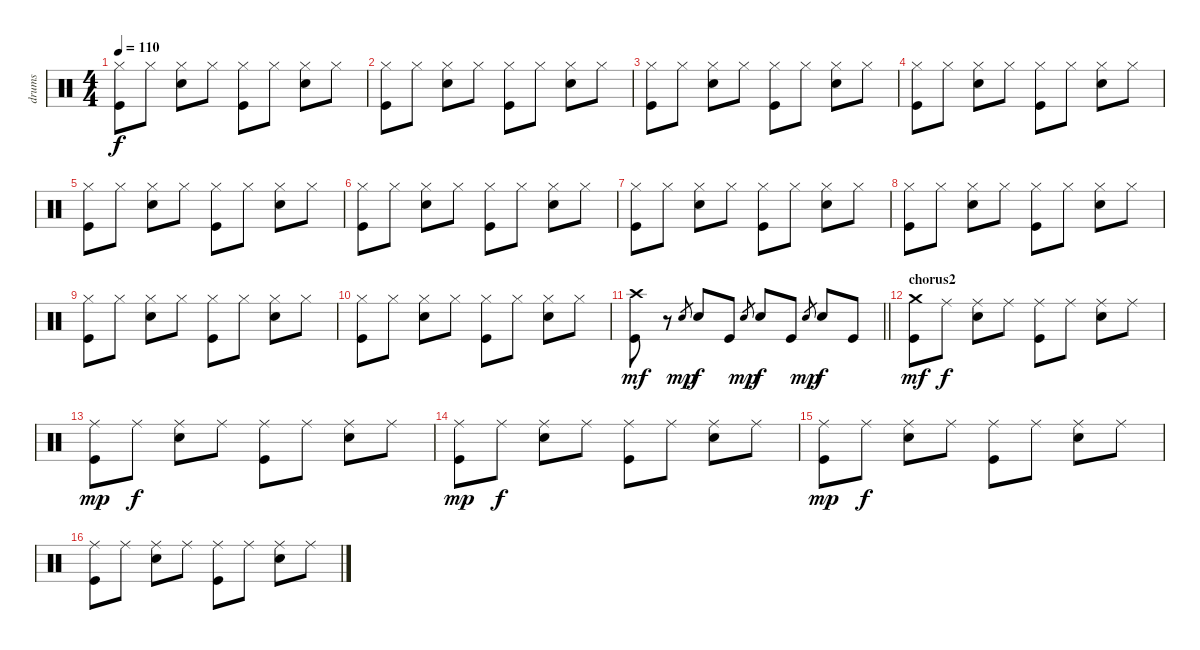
\track ("drums" "drums") {instrument percussion}
\staff {score}
\articulation defaults
\ts (4 4)
\tempo 110
\clef neutral
\ks c
("Hi-Hat (closed)" "Kick (hit)").8{dy f} "Hi-Hat (closed)".8 ("Hi-Hat (closed)" "Snare (hit) 2").8 "Hi-Hat (closed)".8 ("Hi-Hat (closed)" "Kick (hit)").8 "Hi-Hat (closed)".8 ("Hi-Hat (closed)" "Snare (hit) 2").8 "Hi-Hat (closed)".8 |
("Hi-Hat (closed)" "Kick (hit)").8 "Hi-Hat (closed)".8 ("Hi-Hat (closed)" "Snare (hit) 2").8 "Hi-Hat (closed)".8 ("Hi-Hat (closed)" "Kick (hit)").8 "Hi-Hat (closed)".8 ("Hi-Hat (closed)" "Snare (hit) 2").8 "Hi-Hat (closed)".8 |
("Hi-Hat (closed)" "Kick (hit)").8 "Hi-Hat (closed)".8 ("Hi-Hat (closed)" "Snare (hit) 2").8 "Hi-Hat (closed)".8 ("Hi-Hat (closed)" "Kick (hit)").8 "Hi-Hat (closed)".8 ("Hi-Hat (closed)" "Snare (hit) 2").8 "Hi-Hat (closed)".8 |
("Hi-Hat (closed)" "Kick (hit)").8 "Hi-Hat (closed)".8 ("Hi-Hat (closed)" "Snare (hit) 2").8 "Hi-Hat (closed)".8 ("Hi-Hat (closed)" "Kick (hit)").8 "Hi-Hat (closed)".8 ("Hi-Hat (closed)" "Snare (hit) 2").8 "Hi-Hat (closed)".8 |
("Hi-Hat (closed)" "Kick (hit)").8 "Hi-Hat (closed)".8 ("Hi-Hat (closed)" "Snare (hit) 2").8 "Hi-Hat (closed)".8 ("Hi-Hat (closed)" "Kick (hit)").8 "Hi-Hat (closed)".8 ("Hi-Hat (closed)" "Snare (hit) 2").8 "Hi-Hat (closed)".8 |
("Hi-Hat (closed)" "Kick (hit)").8 "Hi-Hat (closed)".8 ("Hi-Hat (closed)" "Snare (hit) 2").8 "Hi-Hat (closed)".8 ("Hi-Hat (closed)" "Kick (hit)").8 "Hi-Hat (closed)".8 ("Hi-Hat (closed)" "Snare (hit) 2").8 "Hi-Hat (closed)".8 |
("Hi-Hat (closed)" "Kick (hit)").8 "Hi-Hat (closed)".8 ("Hi-Hat (closed)" "Snare (hit) 2").8 "Hi-Hat (closed)".8 ("Hi-Hat (closed)" "Kick (hit)").8 "Hi-Hat (closed)".8 ("Hi-Hat (closed)" "Snare (hit) 2").8 "Hi-Hat (closed)".8 |
("Hi-Hat (closed)" "Kick (hit)").8 "Hi-Hat (closed)".8 ("Hi-Hat (closed)" "Snare (hit) 2").8 "Hi-Hat (closed)".8 ("Hi-Hat (closed)" "Kick (hit)").8 "Hi-Hat (closed)".8 ("Hi-Hat (closed)" "Snare (hit) 2").8 "Hi-Hat (closed)".8 |
("Hi-Hat (closed)" "Kick (hit)").8 "Hi-Hat (closed)".8 ("Hi-Hat (closed)" "Snare (hit) 2").8 "Hi-Hat (closed)".8 ("Hi-Hat (closed)" "Kick (hit)").8 "Hi-Hat (closed)".8 ("Hi-Hat (closed)" "Snare (hit) 2").8 "Hi-Hat (closed)".8 |
("Hi-Hat (closed)" "Kick (hit)").8 "Hi-Hat (closed)".8 ("Hi-Hat (closed)" "Snare (hit) 2").8 "Hi-Hat (closed)".8 ("Hi-Hat (closed)" "Kick (hit)").8 "Hi-Hat (closed)".8 ("Hi-Hat (closed)" "Snare (hit) 2").8 "Hi-Hat (closed)".8 |
\barLineRight lightlight
("Crash high (hit)" "Kick (hit)").8{dy mf} r.8 "Snare (hit) 2".8{gr dy mp} "Snare (hit) 2".8{dy f} "Kick (hit)".8 "Snare (hit) 2".8{gr dy mp} "Snare (hit) 2".8{dy f} "Kick (hit)".8 "Snare (hit) 2".8{gr dy mp} "Snare (hit) 2".8{dy f} "Kick (hit)".8 |
\section ("" "chorus2")
("Crash medium (hit)" "Kick (hit)").8{dy mf} "Ride (middle)".8{dy f} ("Ride (middle)" "Snare (hit) 2").8 "Ride (middle)".8 ("Ride (middle)" "Kick (hit)").8 "Ride (middle)".8 ("Ride (middle)" "Snare (hit) 2").8 "Ride (middle)".8 |
("Ride (middle)" "Kick (hit)").8{dy mp} "Ride (middle)".8{dy f} ("Ride (middle)" "Snare (hit) 2").8 "Ride (middle)".8 ("Ride (middle)" "Kick (hit)").8 "Ride (middle)".8 ("Ride (middle)" "Snare (hit) 2").8 "Ride (middle)".8 |
("Ride (middle)" "Kick (hit)").8{dy mp} "Ride (middle)".8{dy f} ("Ride (middle)" "Snare (hit) 2").8 "Ride (middle)".8 ("Ride (middle)" "Kick (hit)").8 "Ride (middle)".8 ("Ride (middle)" "Snare (hit) 2").8 "Ride (middle)".8 |
("Ride (middle)" "Kick (hit)").8{dy mp} "Ride (middle)".8{dy f} ("Ride (middle)" "Snare (hit) 2").8 "Ride (middle)".8 ("Ride (middle)" "Kick (hit)").8 "Ride (middle)".8 ("Ride (middle)" "Snare (hit) 2").8 "Ride (middle)".8 |
("Ride (middle)" "Kick (hit)").8 "Ride (middle)".8 ("Ride (middle)" "Snare (hit) 2").8 "Ride (middle)".8 ("Ride (middle)" "Kick (hit)").8 "Ride (middle)".8 ("Ride (middle)" "Snare (hit) 2").8 "Ride (middle)".8
